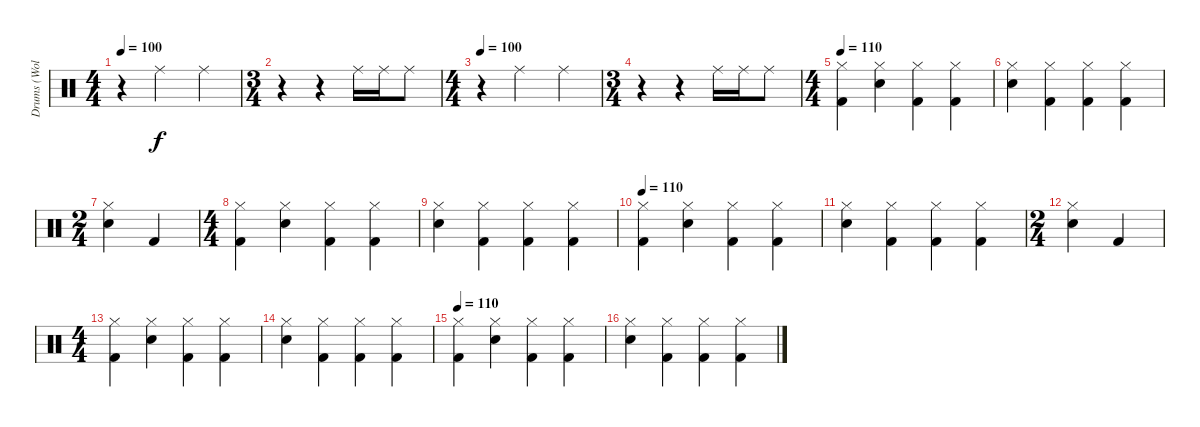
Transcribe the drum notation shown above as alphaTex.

\track ("Drums (Wolf Simons)" "Drums (Wol") {instrument percussion}
\staff {score}
\articulation defaults
\ts (4 4)
\tempo 100
\clef neutral
\ks c
r.4{dy f} "Ride (middle)".2 "Ride (middle)".4 |
\ts (3 4)
r.4 r.4 "Ride (middle)".16 "Ride (middle)".16 "Ride (middle)".8 |
\ts (4 4)
\tempo 100
r.4 "Ride (middle)".2 "Ride (middle)".4 |
\ts (3 4)
r.4 r.4 "Ride (middle)".16 "Ride (middle)".16 "Ride (middle)".8 |
\ts (4 4)
\tempo 110
("Hi-Hat (closed)" "Kick (hit) 2").4 ("Hi-Hat (closed)" "Electric Snare (hit)").4 ("Hi-Hat (closed)" "Kick (hit) 2").4 ("Hi-Hat (closed)" "Kick (hit) 2").4 |
("Hi-Hat (closed)" "Electric Snare (hit)").4 ("Hi-Hat (closed)" "Kick (hit) 2").4 ("Hi-Hat (closed)" "Kick (hit) 2").4 ("Hi-Hat (closed)" "Kick (hit) 2").4 |
\ts (2 4)
("Hi-Hat (closed)" "Electric Snare (hit)").4 "Kick (hit) 2".4 |
\ts (4 4)
("Hi-Hat (closed)" "Kick (hit) 2").4 ("Hi-Hat (closed)" "Electric Snare (hit)").4 ("Hi-Hat (closed)" "Kick (hit) 2").4 ("Hi-Hat (closed)" "Kick (hit) 2").4 |
("Hi-Hat (closed)" "Electric Snare (hit)").4 ("Hi-Hat (closed)" "Kick (hit) 2").4 ("Hi-Hat (closed)" "Kick (hit) 2").4 ("Hi-Hat (closed)" "Kick (hit) 2").4 |
\tempo 110
("Hi-Hat (closed)" "Kick (hit) 2").4 ("Hi-Hat (closed)" "Electric Snare (hit)").4 ("Hi-Hat (closed)" "Kick (hit) 2").4 ("Hi-Hat (closed)" "Kick (hit) 2").4 |
("Hi-Hat (closed)" "Electric Snare (hit)").4 ("Hi-Hat (closed)" "Kick (hit) 2").4 ("Hi-Hat (closed)" "Kick (hit) 2").4 ("Hi-Hat (closed)" "Kick (hit) 2").4 |
\ts (2 4)
("Hi-Hat (closed)" "Electric Snare (hit)").4 "Kick (hit) 2".4 |
\ts (4 4)
("Hi-Hat (closed)" "Kick (hit) 2").4 ("Hi-Hat (closed)" "Electric Snare (hit)").4 ("Hi-Hat (closed)" "Kick (hit) 2").4 ("Hi-Hat (closed)" "Kick (hit) 2").4 |
("Hi-Hat (closed)" "Electric Snare (hit)").4 ("Hi-Hat (closed)" "Kick (hit) 2").4 ("Hi-Hat (closed)" "Kick (hit) 2").4 ("Hi-Hat (closed)" "Kick (hit) 2").4 |
\tempo 110
("Hi-Hat (closed)" "Kick (hit) 2").4 ("Hi-Hat (closed)" "Electric Snare (hit)").4 ("Hi-Hat (closed)" "Kick (hit) 2").4 ("Hi-Hat (closed)" "Kick (hit) 2").4 |
("Hi-Hat (closed)" "Electric Snare (hit)").4 ("Hi-Hat (closed)" "Kick (hit) 2").4 ("Hi-Hat (closed)" "Kick (hit) 2").4 ("Hi-Hat (closed)" "Kick (hit) 2").4
